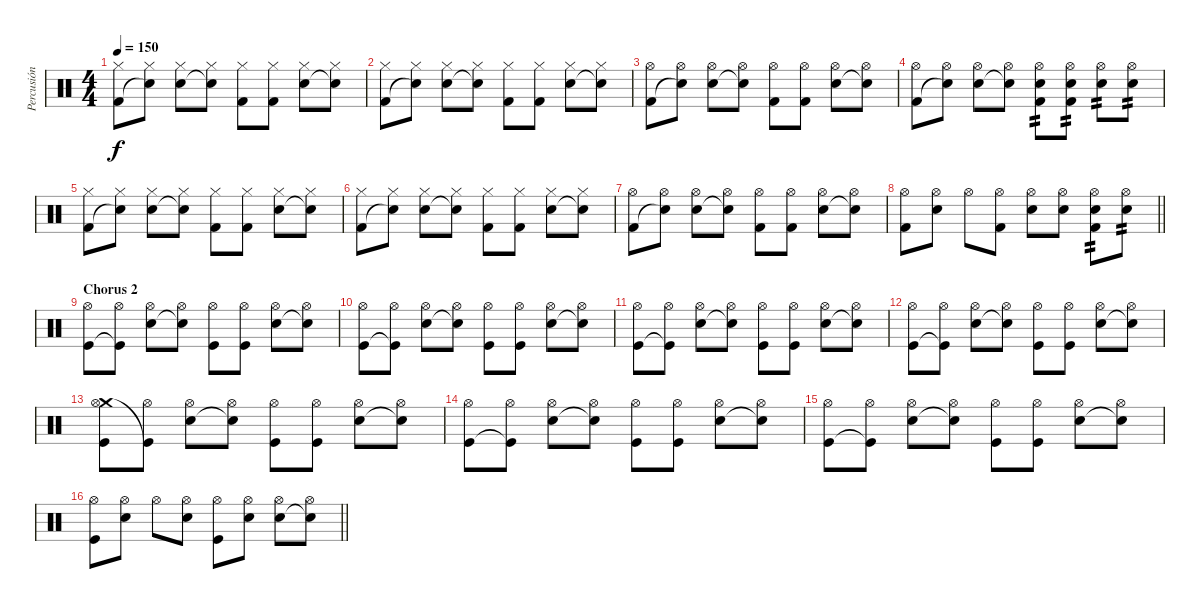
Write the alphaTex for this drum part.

\track ("Percusión" "Percusión") {instrument percussion}
\staff {score}
\articulation defaults
\ts (4 4)
\tempo 150
\clef neutral
\ks c
("Hi-Hat (closed)" "Kick (hit) 2").8{dy f} ("Hi-Hat (closed)" "Snare (hit)"{t}).8 ("Hi-Hat (closed)" "Electric Snare (hit)").8 ("Hi-Hat (closed)" "Snare (hit)"{t}).8 ("Hi-Hat (closed)" "Kick (hit) 2").8 ("Hi-Hat (closed)" "Kick (hit) 2").8 ("Hi-Hat (closed)" "Electric Snare (hit)").8 ("Hi-Hat (closed)" "Snare (hit)"{t}).8 |
("Hi-Hat (closed)" "Kick (hit) 2").8 ("Hi-Hat (closed)" "Snare (hit)"{t}).8 ("Hi-Hat (closed)" "Electric Snare (hit)").8 ("Hi-Hat (closed)" "Snare (hit)"{t}).8 ("Hi-Hat (closed)" "Kick (hit) 2").8 ("Hi-Hat (closed)" "Kick (hit) 2").8 ("Hi-Hat (closed)" "Electric Snare (hit)").8 ("Hi-Hat (closed)" "Snare (hit)"{t}).8 |
("Hi-Hat (open)" "Kick (hit) 2").8 ("Hi-Hat (open)" "Snare (hit)"{t}).8 ("Hi-Hat (open)" "Electric Snare (hit)").8 ("Hi-Hat (open)" "Snare (hit)"{t}).8 ("Hi-Hat (open)" "Kick (hit) 2").8 ("Hi-Hat (open)" "Kick (hit) 2").8 ("Hi-Hat (open)" "Electric Snare (hit)").8 ("Hi-Hat (open)" "Snare (hit)"{t}).8 |
("Hi-Hat (open)" "Kick (hit) 2").8 ("Hi-Hat (open)" "Snare (hit)"{t}).8 ("Hi-Hat (open)" "Electric Snare (hit)").8 ("Hi-Hat (open)" "Snare (hit)"{t}).8 ("Hi-Hat (open)" "Electric Snare (hit)" "Kick (hit) 2").8{tp 2} ("Hi-Hat (open)" "Electric Snare (hit)" "Kick (hit) 2").8{tp 2} ("Hi-Hat (open)" "Electric Snare (hit)").8{tp 2} ("Hi-Hat (open)" "Electric Snare (hit)").8{tp 2} |
("Hi-Hat (closed)" "Kick (hit) 2").8 ("Hi-Hat (closed)" "Snare (hit)"{t}).8 ("Hi-Hat (closed)" "Electric Snare (hit)").8 ("Hi-Hat (closed)" "Snare (hit)"{t}).8 ("Hi-Hat (closed)" "Kick (hit) 2").8 ("Hi-Hat (closed)" "Kick (hit) 2").8 ("Hi-Hat (closed)" "Electric Snare (hit)").8 ("Hi-Hat (closed)" "Snare (hit)"{t}).8 |
("Hi-Hat (closed)" "Kick (hit) 2").8 ("Hi-Hat (closed)" "Snare (hit)"{t}).8 ("Hi-Hat (closed)" "Electric Snare (hit)").8 ("Hi-Hat (closed)" "Snare (hit)"{t}).8 ("Hi-Hat (closed)" "Kick (hit) 2").8 ("Hi-Hat (closed)" "Kick (hit) 2").8 ("Hi-Hat (closed)" "Electric Snare (hit)").8 ("Hi-Hat (closed)" "Snare (hit)"{t}).8 |
("Hi-Hat (open)" "Kick (hit) 2").8 ("Hi-Hat (open)" "Snare (hit)"{t}).8 ("Hi-Hat (open)" "Electric Snare (hit)").8 ("Hi-Hat (open)" "Snare (hit)"{t}).8 ("Hi-Hat (open)" "Kick (hit) 2").8 ("Hi-Hat (open)" "Kick (hit) 2").8 ("Hi-Hat (open)" "Electric Snare (hit)").8 ("Hi-Hat (open)" "Snare (hit)"{t}).8 |
\barLineRight lightlight
("Hi-Hat (open)" "Kick (hit) 2").8 ("Hi-Hat (open)" "Electric Snare (hit)").8 "Hi-Hat (open)".8 ("Hi-Hat (open)" "Kick (hit) 2").8 ("Hi-Hat (open)" "Electric Snare (hit)").8 ("Hi-Hat (open)" "Electric Snare (hit)").8 ("Hi-Hat (open)" "Electric Snare (hit)" "Kick (hit) 2").8{tp 2} ("Hi-Hat (open)" "Electric Snare (hit)").8{tp 2} |
\section ("" "Chorus 2")
("Hi-Hat (open)" "Kick (hit)").8 ("Hi-Hat (open)" "Kick (hit)"{t}).8 ("Hi-Hat (open)" "Electric Snare (hit)").8 ("Hi-Hat (open)" "Snare (hit)"{t}).8 ("Hi-Hat (open)" "Kick (hit)").8 ("Hi-Hat (open)" "Kick (hit)").8 ("Hi-Hat (open)" "Electric Snare (hit)").8 ("Hi-Hat (open)" "Snare (hit)"{t}).8 |
("Hi-Hat (open)" "Kick (hit)").8 ("Hi-Hat (open)" "Kick (hit)"{t}).8 ("Hi-Hat (open)" "Electric Snare (hit)").8 ("Hi-Hat (open)" "Snare (hit)"{t}).8 ("Hi-Hat (open)" "Kick (hit)").8 ("Hi-Hat (open)" "Kick (hit)").8 ("Hi-Hat (open)" "Electric Snare (hit)").8 ("Hi-Hat (open)" "Snare (hit)"{t}).8 |
("Hi-Hat (open)" "Kick (hit)").8 ("Hi-Hat (open)" "Kick (hit)"{t}).8 ("Hi-Hat (open)" "Electric Snare (hit)").8 ("Hi-Hat (open)" "Snare (hit)"{t}).8 ("Hi-Hat (open)" "Kick (hit)").8 ("Hi-Hat (open)" "Kick (hit)").8 ("Hi-Hat (open)" "Electric Snare (hit)").8 ("Hi-Hat (open)" "Snare (hit)"{t}).8 |
("Hi-Hat (open)" "Kick (hit)").8 ("Hi-Hat (open)" "Kick (hit)"{t}).8 ("Hi-Hat (open)" "Electric Snare (hit)").8 ("Hi-Hat (open)" "Snare (hit)"{t}).8 ("Hi-Hat (open)" "Kick (hit)").8 ("Hi-Hat (open)" "Kick (hit)").8 ("Hi-Hat (open)" "Electric Snare (hit)").8 ("Hi-Hat (open)" "Snare (hit)"{t}).8 |
("Crash medium (hit)" "Hi-Hat (open)" "Kick (hit)").8 ("Hi-Hat (open)" "Kick (hit)"{t}).8 ("Hi-Hat (open)" "Electric Snare (hit)").8 ("Hi-Hat (open)" "Snare (hit)"{t}).8 ("Hi-Hat (open)" "Kick (hit)").8 ("Hi-Hat (open)" "Kick (hit)").8 ("Hi-Hat (open)" "Electric Snare (hit)").8 ("Hi-Hat (open)" "Snare (hit)"{t}).8 |
("Hi-Hat (open)" "Kick (hit)").8 ("Hi-Hat (open)" "Kick (hit)"{t}).8 ("Hi-Hat (open)" "Electric Snare (hit)").8 ("Hi-Hat (open)" "Snare (hit)"{t}).8 ("Hi-Hat (open)" "Kick (hit)").8 ("Hi-Hat (open)" "Kick (hit)").8 ("Hi-Hat (open)" "Electric Snare (hit)").8 ("Hi-Hat (open)" "Snare (hit)"{t}).8 |
("Hi-Hat (open)" "Kick (hit)").8 ("Hi-Hat (open)" "Kick (hit)"{t}).8 ("Hi-Hat (open)" "Electric Snare (hit)").8 ("Hi-Hat (open)" "Snare (hit)"{t}).8 ("Hi-Hat (open)" "Kick (hit)").8 ("Hi-Hat (open)" "Kick (hit)").8 ("Hi-Hat (open)" "Electric Snare (hit)").8 ("Hi-Hat (open)" "Snare (hit)"{t}).8 |
\barLineRight lightlight
("Hi-Hat (open)" "Kick (hit)").8 ("Hi-Hat (open)" "Electric Snare (hit)").8 "Hi-Hat (open)".8 ("Hi-Hat (open)" "Electric Snare (hit)").8 ("Hi-Hat (open)" "Kick (hit)").8 ("Hi-Hat (open)" "Electric Snare (hit)").8 ("Hi-Hat (open)" "Electric Snare (hit)").8 ("Hi-Hat (open)" "Snare (hit)"{t}).8
